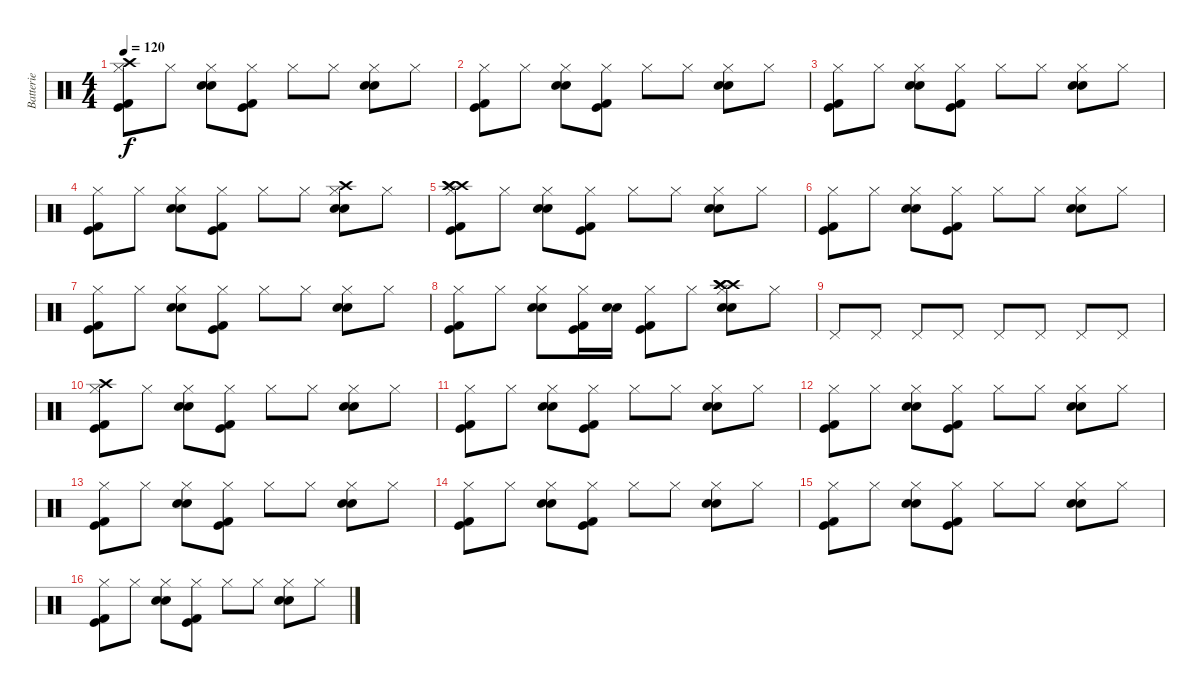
\track ("Batterie" "Batterie") {instrument percussion}
\staff {score}
\articulation defaults
\ts (4 4)
\tempo 120
\clef neutral
\ks c
("Crash high (hit)" "Hi-Hat (closed)" "Kick (hit)" "Kick (hit) 2").8{dy f} "Hi-Hat (closed)".8 ("Hi-Hat (closed)" "Electric Snare (hit)" "Electric Snare (hit)").8 ("Hi-Hat (closed)" "Kick (hit)" "Kick (hit) 2").8 "Hi-Hat (closed)".8 "Hi-Hat (closed)".8 ("Hi-Hat (closed)" "Electric Snare (hit)" "Electric Snare (hit)").8 "Hi-Hat (closed)".8 |
("Hi-Hat (closed)" "Kick (hit)" "Kick (hit) 2").8 "Hi-Hat (closed)".8 ("Hi-Hat (closed)" "Electric Snare (hit)" "Electric Snare (hit)").8 ("Hi-Hat (closed)" "Kick (hit)" "Kick (hit) 2").8 "Hi-Hat (closed)".8 "Hi-Hat (closed)".8 ("Hi-Hat (closed)" "Electric Snare (hit)" "Electric Snare (hit)").8 "Hi-Hat (closed)".8 |
("Hi-Hat (closed)" "Kick (hit)" "Kick (hit) 2").8 "Hi-Hat (closed)".8 ("Hi-Hat (closed)" "Electric Snare (hit)" "Electric Snare (hit)").8 ("Hi-Hat (closed)" "Kick (hit)" "Kick (hit) 2").8 "Hi-Hat (closed)".8 "Hi-Hat (closed)".8 ("Hi-Hat (closed)" "Electric Snare (hit)" "Electric Snare (hit)").8 "Hi-Hat (closed)".8 |
("Hi-Hat (closed)" "Kick (hit)" "Kick (hit) 2").8 "Hi-Hat (closed)".8 ("Hi-Hat (closed)" "Electric Snare (hit)" "Electric Snare (hit)").8 ("Hi-Hat (closed)" "Kick (hit)" "Kick (hit) 2").8 "Hi-Hat (closed)".8 "Hi-Hat (closed)".8 ("Hi-Hat (closed)" "Electric Snare (hit)" "Electric Snare (hit)" "Crash high (hit)").8 "Hi-Hat (closed)".8 |
("Crash high (hit)" "Hi-Hat (closed)" "Crash high (hit)" "Kick (hit)" "Kick (hit) 2" "Crash high (hit)").8 "Hi-Hat (closed)".8 ("Hi-Hat (closed)" "Electric Snare (hit)" "Electric Snare (hit)").8 ("Hi-Hat (closed)" "Kick (hit)" "Kick (hit) 2").8 "Hi-Hat (closed)".8 "Hi-Hat (closed)".8 ("Hi-Hat (closed)" "Electric Snare (hit)" "Electric Snare (hit)").8 "Hi-Hat (closed)".8 |
("Hi-Hat (closed)" "Kick (hit)" "Kick (hit) 2").8 "Hi-Hat (closed)".8 ("Hi-Hat (closed)" "Electric Snare (hit)" "Electric Snare (hit)").8 ("Hi-Hat (closed)" "Kick (hit)" "Kick (hit) 2").8 "Hi-Hat (closed)".8 "Hi-Hat (closed)".8 ("Hi-Hat (closed)" "Electric Snare (hit)" "Electric Snare (hit)").8 "Hi-Hat (closed)".8 |
("Hi-Hat (closed)" "Kick (hit)" "Kick (hit) 2").8 "Hi-Hat (closed)".8 ("Hi-Hat (closed)" "Electric Snare (hit)" "Electric Snare (hit)").8 ("Hi-Hat (closed)" "Kick (hit)" "Kick (hit) 2").8 "Hi-Hat (closed)".8 "Hi-Hat (closed)".8 ("Hi-Hat (closed)" "Electric Snare (hit)" "Electric Snare (hit)").8 "Hi-Hat (closed)".8 |
("Hi-Hat (closed)" "Kick (hit)" "Kick (hit) 2").8 "Hi-Hat (closed)".8 ("Hi-Hat (closed)" "Electric Snare (hit)" "Electric Snare (hit)").8 ("Hi-Hat (closed)" "Kick (hit)" "Kick (hit) 2").16 ("Electric Snare (hit)" "Electric Snare (hit)").16 ("Hi-Hat (closed)" "Kick (hit)" "Kick (hit) 2").8 "Hi-Hat (closed)".8 ("Crash high (hit)" "Hi-Hat (closed)" "Electric Snare (hit)" "Electric Snare (hit)" "Crash high (hit)" "Crash high (hit)").8 "Hi-Hat (closed)".8 |
"Pedal Hi-Hat (hit)".8 "Pedal Hi-Hat (hit)".8 "Pedal Hi-Hat (hit)".8 "Pedal Hi-Hat (hit)".8 "Pedal Hi-Hat (hit)".8 "Pedal Hi-Hat (hit)".8 "Pedal Hi-Hat (hit)".8 "Pedal Hi-Hat (hit)".8 |
("Crash high (hit)" "Hi-Hat (closed)" "Kick (hit)" "Kick (hit) 2").8 "Hi-Hat (closed)".8 ("Hi-Hat (closed)" "Electric Snare (hit)" "Electric Snare (hit)").8 ("Hi-Hat (closed)" "Kick (hit)" "Kick (hit) 2").8 "Hi-Hat (closed)".8 "Hi-Hat (closed)".8 ("Hi-Hat (closed)" "Electric Snare (hit)" "Electric Snare (hit)").8 "Hi-Hat (closed)".8 |
("Hi-Hat (closed)" "Kick (hit)" "Kick (hit) 2").8 "Hi-Hat (closed)".8 ("Hi-Hat (closed)" "Electric Snare (hit)" "Electric Snare (hit)").8 ("Hi-Hat (closed)" "Kick (hit)" "Kick (hit) 2").8 "Hi-Hat (closed)".8 "Hi-Hat (closed)".8 ("Hi-Hat (closed)" "Electric Snare (hit)" "Electric Snare (hit)").8 "Hi-Hat (closed)".8 |
("Hi-Hat (closed)" "Kick (hit)" "Kick (hit) 2").8 "Hi-Hat (closed)".8 ("Hi-Hat (closed)" "Electric Snare (hit)" "Electric Snare (hit)").8 ("Hi-Hat (closed)" "Kick (hit)" "Kick (hit) 2").8 "Hi-Hat (closed)".8 "Hi-Hat (closed)".8 ("Hi-Hat (closed)" "Electric Snare (hit)" "Electric Snare (hit)").8 "Hi-Hat (closed)".8 |
("Hi-Hat (closed)" "Kick (hit)" "Kick (hit) 2").8 "Hi-Hat (closed)".8 ("Hi-Hat (closed)" "Electric Snare (hit)" "Electric Snare (hit)").8 ("Hi-Hat (closed)" "Kick (hit)" "Kick (hit) 2").8 "Hi-Hat (closed)".8 "Hi-Hat (closed)".8 ("Hi-Hat (closed)" "Electric Snare (hit)" "Electric Snare (hit)").8 "Hi-Hat (closed)".8 |
("Hi-Hat (closed)" "Kick (hit)" "Kick (hit) 2").8 "Hi-Hat (closed)".8 ("Hi-Hat (closed)" "Electric Snare (hit)" "Electric Snare (hit)").8 ("Hi-Hat (closed)" "Kick (hit)" "Kick (hit) 2").8 "Hi-Hat (closed)".8 "Hi-Hat (closed)".8 ("Hi-Hat (closed)" "Electric Snare (hit)" "Electric Snare (hit)").8 "Hi-Hat (closed)".8 |
("Hi-Hat (closed)" "Kick (hit)" "Kick (hit) 2").8 "Hi-Hat (closed)".8 ("Hi-Hat (closed)" "Electric Snare (hit)" "Electric Snare (hit)").8 ("Hi-Hat (closed)" "Kick (hit)" "Kick (hit) 2").8 "Hi-Hat (closed)".8 "Hi-Hat (closed)".8 ("Hi-Hat (closed)" "Electric Snare (hit)" "Electric Snare (hit)").8 "Hi-Hat (closed)".8 |
("Hi-Hat (closed)" "Kick (hit)" "Kick (hit) 2").8 "Hi-Hat (closed)".8 ("Hi-Hat (closed)" "Electric Snare (hit)" "Electric Snare (hit)").8 ("Hi-Hat (closed)" "Kick (hit)" "Kick (hit) 2").8 "Hi-Hat (closed)".8 "Hi-Hat (closed)".8 ("Hi-Hat (closed)" "Electric Snare (hit)" "Electric Snare (hit)").8 "Hi-Hat (closed)".8
